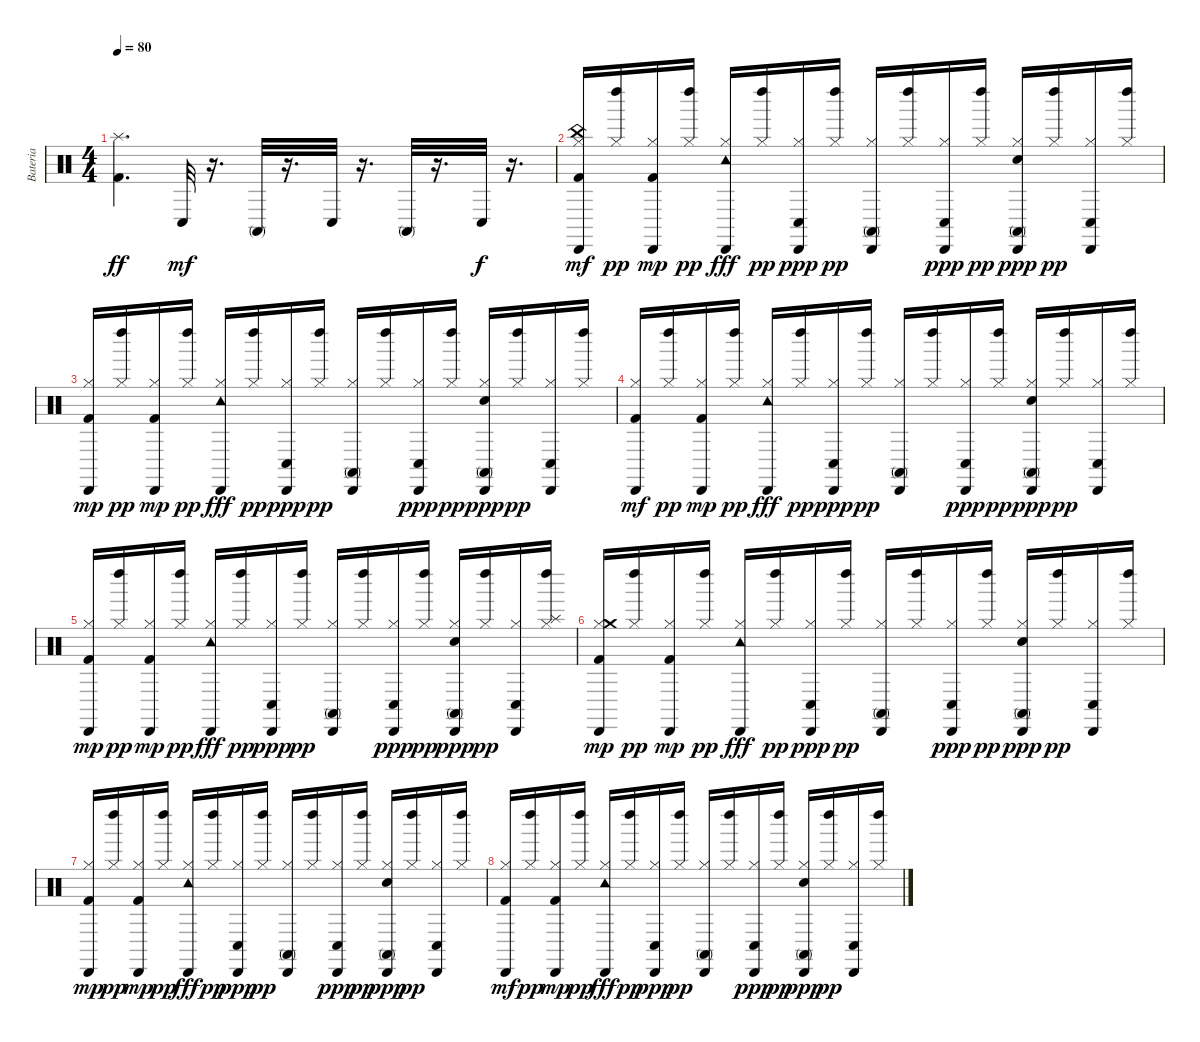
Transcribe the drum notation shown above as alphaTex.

\track ("Bateria" "Bateria") {instrument percussion}
\staff {score}
\articulation defaults
\ts (4 4)
\tempo 80
\clef neutral
\ks c
("Splash (hit)" "Kick (hit) 2").4{d dy ff} "Conga low (hit)".32{dy mf} r.16{d} "Conga high (mute)".32 r.16{d} "Conga low (hit)".32 r.16{d} "Conga high (mute)".32 r.16{d} "Conga low (hit)".32{dy f} r.16{d} |
("Hi-Hat (closed)" "China (hit)" "Cabasa (hit)" "Kick (hit) 2").16{dy mf} ("Hi-Hat (closed)" "Left Maraca (hit)").16{dy pp} ("Hi-Hat (closed)" "Cabasa (hit)" "Kick (hit) 2").16{dy mp} ("Hi-Hat (closed)" "Left Maraca (hit)").16{dy pp} ("Hi-Hat (closed)" "Cabasa (hit)" "Tambourine (hit)").16{dy fff} ("Hi-Hat (closed)" "Left Maraca (hit)").16{dy pp} ("Hi-Hat (closed)" "Conga low (hit)" "Cabasa (hit)").16{dy ppp} ("Hi-Hat (closed)" "Left Maraca (hit)").16{dy pp} ("Hi-Hat (closed)" "Conga high (mute)" "Cabasa (hit)").16 ("Hi-Hat (closed)" "Left Maraca (hit)").16 ("Hi-Hat (closed)" "Conga low (hit)" "Cabasa (hit)").16{dy ppp} ("Hi-Hat (closed)" "Left Maraca (hit)").16{dy pp} ("Electric Snare (hit)" "Hi-Hat (closed)" "Conga high (mute)" "Cabasa (hit)").16{dy ppp} ("Hi-Hat (closed)" "Left Maraca (hit)").16{dy pp} ("Hi-Hat (closed)" "Conga low (hit)" "Cabasa (hit)").16 ("Hi-Hat (closed)" "Left Maraca (hit)").16 |
("Hi-Hat (closed)" "Cabasa (hit)" "Kick (hit) 2").16{dy mp} ("Hi-Hat (closed)" "Left Maraca (hit)").16{dy pp} ("Hi-Hat (closed)" "Cabasa (hit)" "Kick (hit) 2").16{dy mp} ("Hi-Hat (closed)" "Left Maraca (hit)").16{dy pp} ("Hi-Hat (closed)" "Cabasa (hit)" "Tambourine (hit)").16{dy fff} ("Hi-Hat (closed)" "Left Maraca (hit)").16{dy pp} ("Hi-Hat (closed)" "Conga low (hit)" "Cabasa (hit)").16{dy ppp} ("Hi-Hat (closed)" "Left Maraca (hit)").16{dy pp} ("Hi-Hat (closed)" "Conga high (mute)" "Cabasa (hit)").16 ("Hi-Hat (closed)" "Left Maraca (hit)").16 ("Hi-Hat (closed)" "Conga low (hit)" "Cabasa (hit)").16{dy ppp} ("Hi-Hat (closed)" "Left Maraca (hit)").16{dy pp} ("Electric Snare (hit)" "Hi-Hat (closed)" "Conga high (mute)" "Cabasa (hit)").16{dy ppp} ("Hi-Hat (closed)" "Left Maraca (hit)").16{dy pp} ("Hi-Hat (closed)" "Conga low (hit)" "Cabasa (hit)").16 ("Hi-Hat (closed)" "Left Maraca (hit)").16 |
("Hi-Hat (closed)" "Cabasa (hit)" "Kick (hit) 2").16{dy mf} ("Hi-Hat (closed)" "Left Maraca (hit)").16{dy pp} ("Hi-Hat (closed)" "Cabasa (hit)" "Kick (hit) 2").16{dy mp} ("Hi-Hat (closed)" "Left Maraca (hit)").16{dy pp} ("Hi-Hat (closed)" "Cabasa (hit)" "Tambourine (hit)").16{dy fff} ("Hi-Hat (closed)" "Left Maraca (hit)").16{dy pp} ("Hi-Hat (closed)" "Conga low (hit)" "Cabasa (hit)").16{dy ppp} ("Hi-Hat (closed)" "Left Maraca (hit)").16{dy pp} ("Hi-Hat (closed)" "Conga high (mute)" "Cabasa (hit)").16 ("Hi-Hat (closed)" "Left Maraca (hit)").16 ("Hi-Hat (closed)" "Conga low (hit)" "Cabasa (hit)").16{dy ppp} ("Hi-Hat (closed)" "Left Maraca (hit)").16{dy pp} ("Electric Snare (hit)" "Hi-Hat (closed)" "Conga high (mute)" "Cabasa (hit)").16{dy ppp} ("Hi-Hat (closed)" "Left Maraca (hit)").16{dy pp} ("Hi-Hat (closed)" "Conga low (hit)" "Cabasa (hit)").16 ("Hi-Hat (closed)" "Left Maraca (hit)").16 |
("Hi-Hat (closed)" "Cabasa (hit)" "Kick (hit) 2").16{dy mp} ("Hi-Hat (closed)" "Left Maraca (hit)").16{dy pp} ("Hi-Hat (closed)" "Cabasa (hit)" "Kick (hit) 2").16{dy mp} ("Hi-Hat (closed)" "Left Maraca (hit)").16{dy pp} ("Hi-Hat (closed)" "Cabasa (hit)" "Tambourine (hit)").16{dy fff} ("Hi-Hat (closed)" "Left Maraca (hit)").16{dy pp} ("Hi-Hat (closed)" "Conga low (hit)" "Cabasa (hit)").16{dy ppp} ("Hi-Hat (closed)" "Left Maraca (hit)").16{dy pp} ("Hi-Hat (closed)" "Conga high (mute)" "Cabasa (hit)").16 ("Hi-Hat (closed)" "Left Maraca (hit)").16 ("Hi-Hat (closed)" "Conga low (hit)" "Cabasa (hit)").16{dy ppp} ("Hi-Hat (closed)" "Left Maraca (hit)").16{dy pp} ("Electric Snare (hit)" "Hi-Hat (closed)" "Conga high (mute)" "Cabasa (hit)").16{dy ppp} ("Hi-Hat (closed)" "Left Maraca (hit)").16{dy pp} ("Hi-Hat (closed)" "Conga low (hit)" "Cabasa (hit)").16 ("Hi-Hat (closed)" "Splash (hit)" "Left Maraca (hit)").16 |
("Hi-Hat (closed)" "Cabasa (hit)" "Kick (hit) 2" "Crash medium (hit)").16{dy mp} ("Hi-Hat (closed)" "Left Maraca (hit)").16{dy pp} ("Hi-Hat (closed)" "Cabasa (hit)" "Kick (hit) 2").16{dy mp} ("Hi-Hat (closed)" "Left Maraca (hit)").16{dy pp} ("Hi-Hat (closed)" "Cabasa (hit)" "Tambourine (hit)").16{dy fff} ("Hi-Hat (closed)" "Left Maraca (hit)").16{dy pp} ("Hi-Hat (closed)" "Conga low (hit)" "Cabasa (hit)").16{dy ppp} ("Hi-Hat (closed)" "Left Maraca (hit)").16{dy pp} ("Hi-Hat (closed)" "Conga high (mute)" "Cabasa (hit)").16 ("Hi-Hat (closed)" "Left Maraca (hit)").16 ("Hi-Hat (closed)" "Conga low (hit)" "Cabasa (hit)").16{dy ppp} ("Hi-Hat (closed)" "Left Maraca (hit)").16{dy pp} ("Electric Snare (hit)" "Hi-Hat (closed)" "Conga high (mute)" "Cabasa (hit)").16{dy ppp} ("Hi-Hat (closed)" "Left Maraca (hit)").16{dy pp} ("Hi-Hat (closed)" "Conga low (hit)" "Cabasa (hit)").16 ("Hi-Hat (closed)" "Left Maraca (hit)").16 |
("Hi-Hat (closed)" "Cabasa (hit)" "Kick (hit) 2").16{dy mp} ("Hi-Hat (closed)" "Left Maraca (hit)").16{dy pp} ("Hi-Hat (closed)" "Cabasa (hit)" "Kick (hit) 2").16{dy mp} ("Hi-Hat (closed)" "Left Maraca (hit)").16{dy pp} ("Hi-Hat (closed)" "Cabasa (hit)" "Tambourine (hit)").16{dy fff} ("Hi-Hat (closed)" "Left Maraca (hit)").16{dy pp} ("Hi-Hat (closed)" "Conga low (hit)" "Cabasa (hit)").16{dy ppp} ("Hi-Hat (closed)" "Left Maraca (hit)").16{dy pp} ("Hi-Hat (closed)" "Conga high (mute)" "Cabasa (hit)").16 ("Hi-Hat (closed)" "Left Maraca (hit)").16 ("Hi-Hat (closed)" "Conga low (hit)" "Cabasa (hit)").16{dy ppp} ("Hi-Hat (closed)" "Left Maraca (hit)").16{dy pp} ("Electric Snare (hit)" "Hi-Hat (closed)" "Conga high (mute)" "Cabasa (hit)").16{dy ppp} ("Hi-Hat (closed)" "Left Maraca (hit)").16{dy pp} ("Hi-Hat (closed)" "Conga low (hit)" "Cabasa (hit)").16 ("Hi-Hat (closed)" "Left Maraca (hit)").16 |
("Hi-Hat (closed)" "Cabasa (hit)" "Kick (hit) 2").16{dy mf} ("Hi-Hat (closed)" "Left Maraca (hit)").16{dy pp} ("Hi-Hat (closed)" "Cabasa (hit)" "Kick (hit) 2").16{dy mp} ("Hi-Hat (closed)" "Left Maraca (hit)").16{dy pp} ("Hi-Hat (closed)" "Cabasa (hit)" "Tambourine (hit)").16{dy fff} ("Hi-Hat (closed)" "Left Maraca (hit)").16{dy pp} ("Hi-Hat (closed)" "Conga low (hit)" "Cabasa (hit)").16{dy ppp} ("Hi-Hat (closed)" "Left Maraca (hit)").16{dy pp} ("Hi-Hat (closed)" "Conga high (mute)" "Cabasa (hit)").16 ("Hi-Hat (closed)" "Left Maraca (hit)").16 ("Hi-Hat (closed)" "Conga low (hit)" "Cabasa (hit)").16{dy ppp} ("Hi-Hat (closed)" "Left Maraca (hit)").16{dy pp} ("Electric Snare (hit)" "Hi-Hat (closed)" "Conga high (mute)" "Cabasa (hit)").16{dy ppp} ("Hi-Hat (closed)" "Left Maraca (hit)").16{dy pp} ("Hi-Hat (closed)" "Conga low (hit)" "Cabasa (hit)").16 ("Hi-Hat (closed)" "Left Maraca (hit)").16
